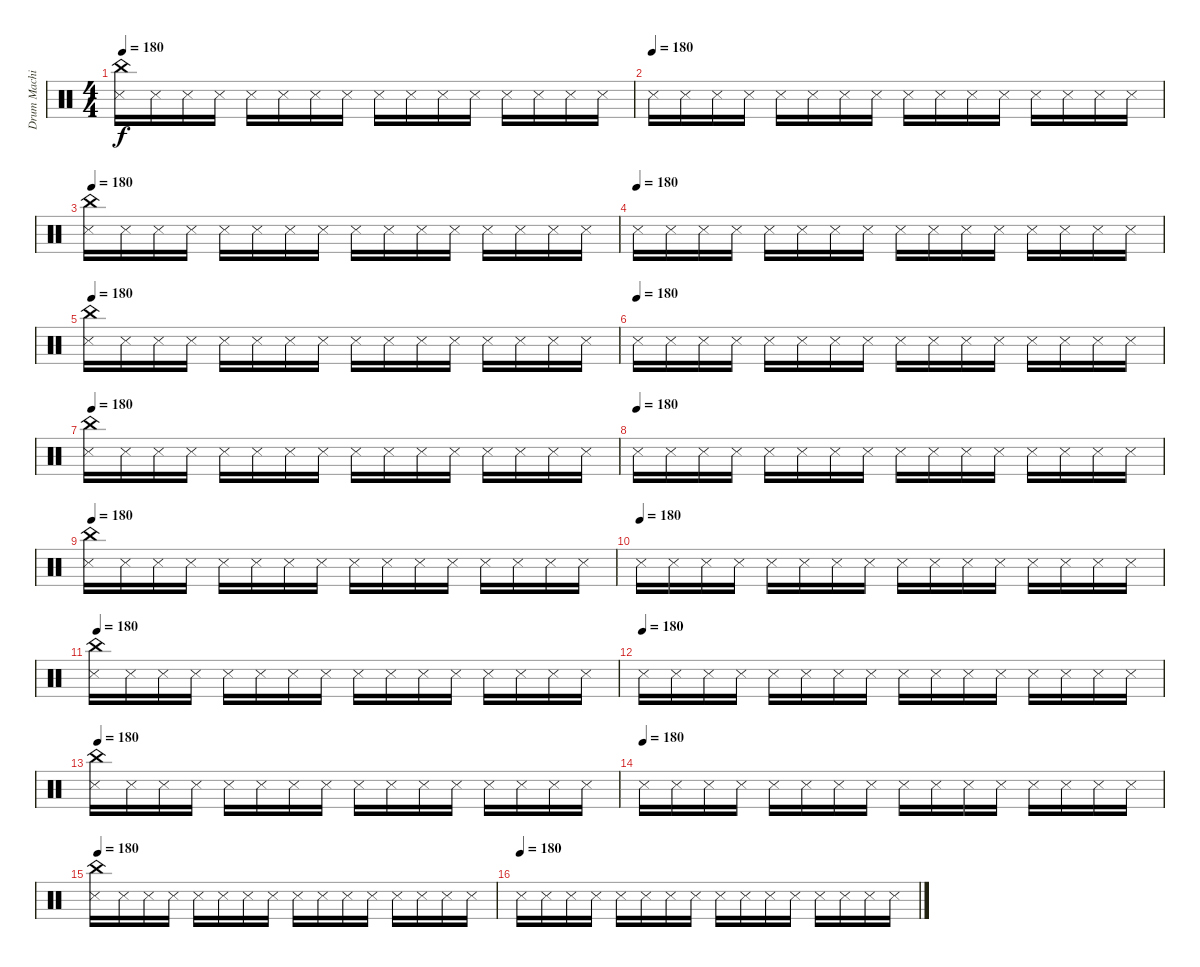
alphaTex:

\track ("Drum Machine" "Drum Machi") {instrument percussion}
\staff {score}
\articulation defaults
\ts (4 4)
\tempo 180
\clef neutral
\ks c
("China (hit)" "Snare (side stick) 3").16{dy f} "Snare (side stick) 3".16 "Snare (side stick) 3".16 "Snare (side stick) 3".16 "Snare (side stick) 3".16 "Snare (side stick) 3".16 "Snare (side stick) 3".16 "Snare (side stick) 3".16 "Snare (side stick) 3".16 "Snare (side stick) 3".16 "Snare (side stick) 3".16 "Snare (side stick) 3".16 "Snare (side stick) 3".16 "Snare (side stick) 3".16 "Snare (side stick) 3".16 "Snare (side stick) 3".16 |
\tempo (180)
"Snare (side stick) 3".16 "Snare (side stick) 3".16 "Snare (side stick) 3".16 "Snare (side stick) 3".16 "Snare (side stick) 3".16 "Snare (side stick) 3".16 "Snare (side stick) 3".16 "Snare (side stick) 3".16 "Snare (side stick) 3".16 "Snare (side stick) 3".16 "Snare (side stick) 3".16 "Snare (side stick) 3".16 "Snare (side stick) 3".16 "Snare (side stick) 3".16 "Snare (side stick) 3".16 "Snare (side stick) 3".16 |
\tempo 180
("China (hit)" "Snare (side stick) 3").16 "Snare (side stick) 3".16 "Snare (side stick) 3".16 "Snare (side stick) 3".16 "Snare (side stick) 3".16 "Snare (side stick) 3".16 "Snare (side stick) 3".16 "Snare (side stick) 3".16 "Snare (side stick) 3".16 "Snare (side stick) 3".16 "Snare (side stick) 3".16 "Snare (side stick) 3".16 "Snare (side stick) 3".16 "Snare (side stick) 3".16 "Snare (side stick) 3".16 "Snare (side stick) 3".16 |
\tempo (180)
"Snare (side stick) 3".16 "Snare (side stick) 3".16 "Snare (side stick) 3".16 "Snare (side stick) 3".16 "Snare (side stick) 3".16 "Snare (side stick) 3".16 "Snare (side stick) 3".16 "Snare (side stick) 3".16 "Snare (side stick) 3".16 "Snare (side stick) 3".16 "Snare (side stick) 3".16 "Snare (side stick) 3".16 "Snare (side stick) 3".16 "Snare (side stick) 3".16 "Snare (side stick) 3".16 "Snare (side stick) 3".16 |
\tempo 180
("China (hit)" "Snare (side stick) 3").16 "Snare (side stick) 3".16 "Snare (side stick) 3".16 "Snare (side stick) 3".16 "Snare (side stick) 3".16 "Snare (side stick) 3".16 "Snare (side stick) 3".16 "Snare (side stick) 3".16 "Snare (side stick) 3".16 "Snare (side stick) 3".16 "Snare (side stick) 3".16 "Snare (side stick) 3".16 "Snare (side stick) 3".16 "Snare (side stick) 3".16 "Snare (side stick) 3".16 "Snare (side stick) 3".16 |
\tempo (180)
"Snare (side stick) 3".16 "Snare (side stick) 3".16 "Snare (side stick) 3".16 "Snare (side stick) 3".16 "Snare (side stick) 3".16 "Snare (side stick) 3".16 "Snare (side stick) 3".16 "Snare (side stick) 3".16 "Snare (side stick) 3".16 "Snare (side stick) 3".16 "Snare (side stick) 3".16 "Snare (side stick) 3".16 "Snare (side stick) 3".16 "Snare (side stick) 3".16 "Snare (side stick) 3".16 "Snare (side stick) 3".16 |
\tempo 180
("China (hit)" "Snare (side stick) 3").16 "Snare (side stick) 3".16 "Snare (side stick) 3".16 "Snare (side stick) 3".16 "Snare (side stick) 3".16 "Snare (side stick) 3".16 "Snare (side stick) 3".16 "Snare (side stick) 3".16 "Snare (side stick) 3".16 "Snare (side stick) 3".16 "Snare (side stick) 3".16 "Snare (side stick) 3".16 "Snare (side stick) 3".16 "Snare (side stick) 3".16 "Snare (side stick) 3".16 "Snare (side stick) 3".16 |
\tempo (180)
"Snare (side stick) 3".16 "Snare (side stick) 3".16 "Snare (side stick) 3".16 "Snare (side stick) 3".16 "Snare (side stick) 3".16 "Snare (side stick) 3".16 "Snare (side stick) 3".16 "Snare (side stick) 3".16 "Snare (side stick) 3".16 "Snare (side stick) 3".16 "Snare (side stick) 3".16 "Snare (side stick) 3".16 "Snare (side stick) 3".16 "Snare (side stick) 3".16 "Snare (side stick) 3".16 "Snare (side stick) 3".16 |
\tempo 180
("China (hit)" "Snare (side stick) 3").16 "Snare (side stick) 3".16 "Snare (side stick) 3".16 "Snare (side stick) 3".16 "Snare (side stick) 3".16 "Snare (side stick) 3".16 "Snare (side stick) 3".16 "Snare (side stick) 3".16 "Snare (side stick) 3".16 "Snare (side stick) 3".16 "Snare (side stick) 3".16 "Snare (side stick) 3".16 "Snare (side stick) 3".16 "Snare (side stick) 3".16 "Snare (side stick) 3".16 "Snare (side stick) 3".16 |
\tempo (180)
"Snare (side stick) 3".16 "Snare (side stick) 3".16 "Snare (side stick) 3".16 "Snare (side stick) 3".16 "Snare (side stick) 3".16 "Snare (side stick) 3".16 "Snare (side stick) 3".16 "Snare (side stick) 3".16 "Snare (side stick) 3".16 "Snare (side stick) 3".16 "Snare (side stick) 3".16 "Snare (side stick) 3".16 "Snare (side stick) 3".16 "Snare (side stick) 3".16 "Snare (side stick) 3".16 "Snare (side stick) 3".16 |
\tempo 180
("China (hit)" "Snare (side stick) 3").16 "Snare (side stick) 3".16 "Snare (side stick) 3".16 "Snare (side stick) 3".16 "Snare (side stick) 3".16 "Snare (side stick) 3".16 "Snare (side stick) 3".16 "Snare (side stick) 3".16 "Snare (side stick) 3".16 "Snare (side stick) 3".16 "Snare (side stick) 3".16 "Snare (side stick) 3".16 "Snare (side stick) 3".16 "Snare (side stick) 3".16 "Snare (side stick) 3".16 "Snare (side stick) 3".16 |
\tempo (180)
"Snare (side stick) 3".16 "Snare (side stick) 3".16 "Snare (side stick) 3".16 "Snare (side stick) 3".16 "Snare (side stick) 3".16 "Snare (side stick) 3".16 "Snare (side stick) 3".16 "Snare (side stick) 3".16 "Snare (side stick) 3".16 "Snare (side stick) 3".16 "Snare (side stick) 3".16 "Snare (side stick) 3".16 "Snare (side stick) 3".16 "Snare (side stick) 3".16 "Snare (side stick) 3".16 "Snare (side stick) 3".16 |
\tempo 180
("China (hit)" "Snare (side stick) 3").16 "Snare (side stick) 3".16 "Snare (side stick) 3".16 "Snare (side stick) 3".16 "Snare (side stick) 3".16 "Snare (side stick) 3".16 "Snare (side stick) 3".16 "Snare (side stick) 3".16 "Snare (side stick) 3".16 "Snare (side stick) 3".16 "Snare (side stick) 3".16 "Snare (side stick) 3".16 "Snare (side stick) 3".16 "Snare (side stick) 3".16 "Snare (side stick) 3".16 "Snare (side stick) 3".16 |
\tempo (180)
"Snare (side stick) 3".16 "Snare (side stick) 3".16 "Snare (side stick) 3".16 "Snare (side stick) 3".16 "Snare (side stick) 3".16 "Snare (side stick) 3".16 "Snare (side stick) 3".16 "Snare (side stick) 3".16 "Snare (side stick) 3".16 "Snare (side stick) 3".16 "Snare (side stick) 3".16 "Snare (side stick) 3".16 "Snare (side stick) 3".16 "Snare (side stick) 3".16 "Snare (side stick) 3".16 "Snare (side stick) 3".16 |
\tempo 180
("China (hit)" "Snare (side stick) 3").16 "Snare (side stick) 3".16 "Snare (side stick) 3".16 "Snare (side stick) 3".16 "Snare (side stick) 3".16 "Snare (side stick) 3".16 "Snare (side stick) 3".16 "Snare (side stick) 3".16 "Snare (side stick) 3".16 "Snare (side stick) 3".16 "Snare (side stick) 3".16 "Snare (side stick) 3".16 "Snare (side stick) 3".16 "Snare (side stick) 3".16 "Snare (side stick) 3".16 "Snare (side stick) 3".16 |
\tempo (180)
"Snare (side stick) 3".16 "Snare (side stick) 3".16 "Snare (side stick) 3".16 "Snare (side stick) 3".16 "Snare (side stick) 3".16 "Snare (side stick) 3".16 "Snare (side stick) 3".16 "Snare (side stick) 3".16 "Snare (side stick) 3".16 "Snare (side stick) 3".16 "Snare (side stick) 3".16 "Snare (side stick) 3".16 "Snare (side stick) 3".16 "Snare (side stick) 3".16 "Snare (side stick) 3".16 "Snare (side stick) 3".16
